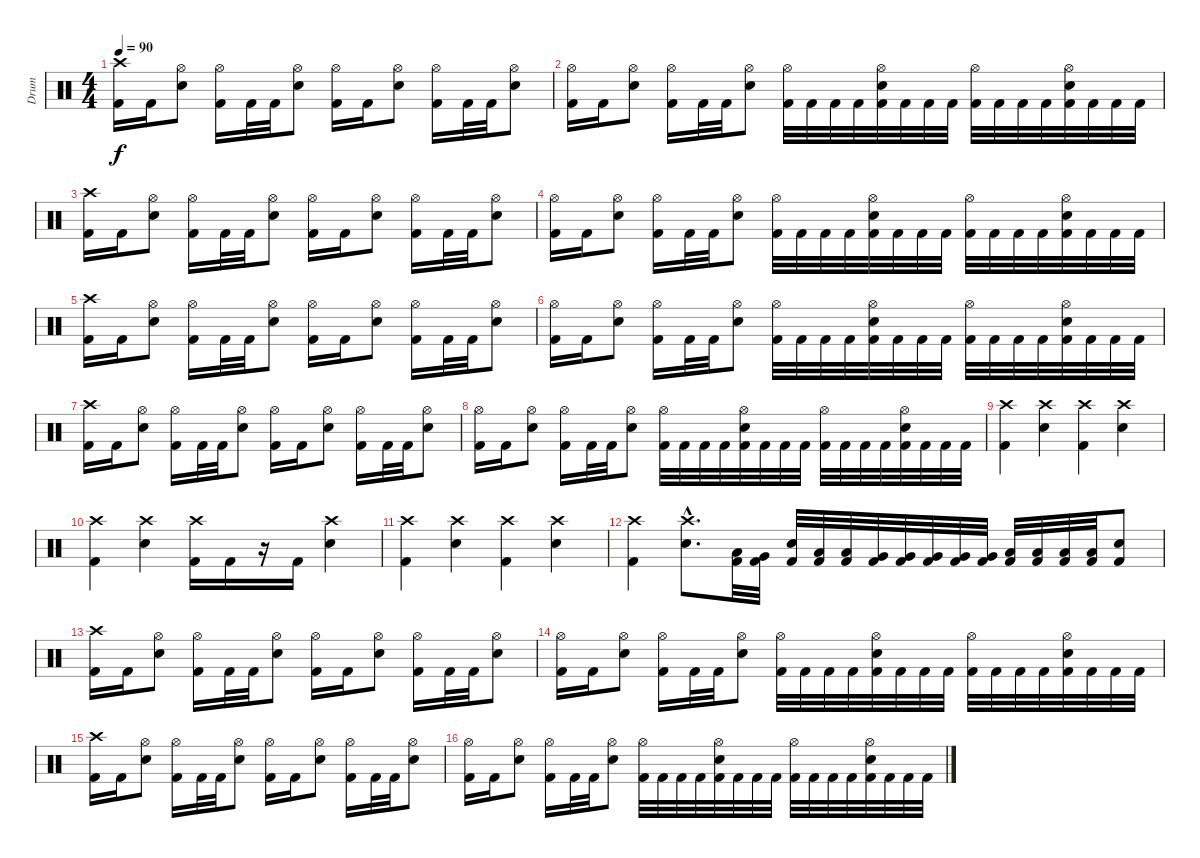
\track ("Drum" "Drum") {instrument percussion}
\staff {score}
\articulation defaults
\ts (4 4)
\tempo 90
\clef neutral
\ks c
("Crash high (hit)" "Kick (hit) 2").16{dy f} "Kick (hit) 2".16 ("Electric Snare (hit)" "Hi-Hat (open)").8 ("Hi-Hat (open)" "Kick (hit) 2").16 "Kick (hit) 2".32 "Kick (hit) 2".32 ("Electric Snare (hit)" "Hi-Hat (open)").8 ("Hi-Hat (open)" "Kick (hit) 2").16 "Kick (hit) 2".16 ("Electric Snare (hit)" "Hi-Hat (open)").8 ("Hi-Hat (open)" "Kick (hit) 2").16 "Kick (hit) 2".32 "Kick (hit) 2".32 ("Electric Snare (hit)" "Hi-Hat (open)").8 |
("Hi-Hat (open)" "Kick (hit) 2").16 "Kick (hit) 2".16 ("Electric Snare (hit)" "Hi-Hat (open)").8 ("Hi-Hat (open)" "Kick (hit) 2").16 "Kick (hit) 2".32 "Kick (hit) 2".32 ("Electric Snare (hit)" "Hi-Hat (open)").8 ("Hi-Hat (open)" "Kick (hit) 2").32 "Kick (hit) 2".32 "Kick (hit) 2".32 "Kick (hit) 2".32 ("Electric Snare (hit)" "Hi-Hat (open)" "Kick (hit) 2").32 "Kick (hit) 2".32 "Kick (hit) 2".32 "Kick (hit) 2".32 ("Hi-Hat (open)" "Kick (hit) 2").32 "Kick (hit) 2".32 "Kick (hit) 2".32 "Kick (hit) 2".32 ("Electric Snare (hit)" "Hi-Hat (open)" "Kick (hit) 2").32 "Kick (hit) 2".32 "Kick (hit) 2".32 "Kick (hit) 2".32 |
("Crash high (hit)" "Kick (hit) 2").16 "Kick (hit) 2".16 ("Electric Snare (hit)" "Hi-Hat (open)").8 ("Hi-Hat (open)" "Kick (hit) 2").16 "Kick (hit) 2".32 "Kick (hit) 2".32 ("Electric Snare (hit)" "Hi-Hat (open)").8 ("Hi-Hat (open)" "Kick (hit) 2").16 "Kick (hit) 2".16 ("Electric Snare (hit)" "Hi-Hat (open)").8 ("Hi-Hat (open)" "Kick (hit) 2").16 "Kick (hit) 2".32 "Kick (hit) 2".32 ("Electric Snare (hit)" "Hi-Hat (open)").8 |
("Hi-Hat (open)" "Kick (hit) 2").16 "Kick (hit) 2".16 ("Electric Snare (hit)" "Hi-Hat (open)").8 ("Hi-Hat (open)" "Kick (hit) 2").16 "Kick (hit) 2".32 "Kick (hit) 2".32 ("Electric Snare (hit)" "Hi-Hat (open)").8 ("Hi-Hat (open)" "Kick (hit) 2").32 "Kick (hit) 2".32 "Kick (hit) 2".32 "Kick (hit) 2".32 ("Electric Snare (hit)" "Hi-Hat (open)" "Kick (hit) 2").32 "Kick (hit) 2".32 "Kick (hit) 2".32 "Kick (hit) 2".32 ("Hi-Hat (open)" "Kick (hit) 2").32 "Kick (hit) 2".32 "Kick (hit) 2".32 "Kick (hit) 2".32 ("Electric Snare (hit)" "Hi-Hat (open)" "Kick (hit) 2").32 "Kick (hit) 2".32 "Kick (hit) 2".32 "Kick (hit) 2".32 |
("Crash high (hit)" "Kick (hit) 2").16 "Kick (hit) 2".16 ("Electric Snare (hit)" "Hi-Hat (open)").8 ("Hi-Hat (open)" "Kick (hit) 2").16 "Kick (hit) 2".32 "Kick (hit) 2".32 ("Electric Snare (hit)" "Hi-Hat (open)").8 ("Hi-Hat (open)" "Kick (hit) 2").16 "Kick (hit) 2".16 ("Electric Snare (hit)" "Hi-Hat (open)").8 ("Hi-Hat (open)" "Kick (hit) 2").16 "Kick (hit) 2".32 "Kick (hit) 2".32 ("Electric Snare (hit)" "Hi-Hat (open)").8 |
("Hi-Hat (open)" "Kick (hit) 2").16 "Kick (hit) 2".16 ("Electric Snare (hit)" "Hi-Hat (open)").8 ("Hi-Hat (open)" "Kick (hit) 2").16 "Kick (hit) 2".32 "Kick (hit) 2".32 ("Electric Snare (hit)" "Hi-Hat (open)").8 ("Hi-Hat (open)" "Kick (hit) 2").32 "Kick (hit) 2".32 "Kick (hit) 2".32 "Kick (hit) 2".32 ("Electric Snare (hit)" "Hi-Hat (open)" "Kick (hit) 2").32 "Kick (hit) 2".32 "Kick (hit) 2".32 "Kick (hit) 2".32 ("Hi-Hat (open)" "Kick (hit) 2").32 "Kick (hit) 2".32 "Kick (hit) 2".32 "Kick (hit) 2".32 ("Electric Snare (hit)" "Hi-Hat (open)" "Kick (hit) 2").32 "Kick (hit) 2".32 "Kick (hit) 2".32 "Kick (hit) 2".32 |
("Crash high (hit)" "Kick (hit) 2").16 "Kick (hit) 2".16 ("Electric Snare (hit)" "Hi-Hat (open)").8 ("Hi-Hat (open)" "Kick (hit) 2").16 "Kick (hit) 2".32 "Kick (hit) 2".32 ("Electric Snare (hit)" "Hi-Hat (open)").8 ("Hi-Hat (open)" "Kick (hit) 2").16 "Kick (hit) 2".16 ("Electric Snare (hit)" "Hi-Hat (open)").8 ("Hi-Hat (open)" "Kick (hit) 2").16 "Kick (hit) 2".32 "Kick (hit) 2".32 ("Electric Snare (hit)" "Hi-Hat (open)").8 |
("Hi-Hat (open)" "Kick (hit) 2").16 "Kick (hit) 2".16 ("Electric Snare (hit)" "Hi-Hat (open)").8 ("Hi-Hat (open)" "Kick (hit) 2").16 "Kick (hit) 2".32 "Kick (hit) 2".32 ("Electric Snare (hit)" "Hi-Hat (open)").8 ("Hi-Hat (open)" "Kick (hit) 2").32 "Kick (hit) 2".32 "Kick (hit) 2".32 "Kick (hit) 2".32 ("Electric Snare (hit)" "Hi-Hat (open)" "Kick (hit) 2").32 "Kick (hit) 2".32 "Kick (hit) 2".32 "Kick (hit) 2".32 ("Hi-Hat (open)" "Kick (hit) 2").32 "Kick (hit) 2".32 "Kick (hit) 2".32 "Kick (hit) 2".32 ("Electric Snare (hit)" "Hi-Hat (open)" "Kick (hit) 2").32 "Kick (hit) 2".32 "Kick (hit) 2".32 "Kick (hit) 2".32 |
("Crash high (hit)" "Kick (hit) 2").4 ("Electric Snare (hit)" "Crash high (hit)").4 ("Crash high (hit)" "Kick (hit) 2").4 ("Electric Snare (hit)" "Crash high (hit)").4 |
("Crash high (hit)" "Kick (hit) 2").4 ("Electric Snare (hit)" "Crash high (hit)").4 ("Crash high (hit)" "Kick (hit) 2").16 "Kick (hit) 2".16 r.16 "Kick (hit) 2".16 ("Electric Snare (hit)" "Crash high (hit)").4 |
("Crash high (hit)" "Kick (hit) 2").4 ("Electric Snare (hit)" "Crash high (hit)").4 ("Crash high (hit)" "Kick (hit) 2").4 ("Electric Snare (hit)" "Crash high (hit)").4 |
("Crash high (hit)" "Kick (hit) 2").4 ("Electric Snare (hit)"{hac} "Crash high (hit)"{hac}).8{d} ("Low Tom (hit)" "Kick (hit) 2").32 ("Very Low Tom (hit)" "Kick (hit) 2").32 ("Electric Snare (hit)" "Kick (hit) 2").32 ("Low Tom (hit)" "Kick (hit) 2").32 ("Low Tom (hit)" "Kick (hit) 2").32 ("Very Low Tom (hit)" "Kick (hit) 2").32 ("Very Low Tom (hit)" "Kick (hit) 2").32 ("Very Low Tom (hit)" "Kick (hit) 2").32 ("Very Low Tom (hit)" "Kick (hit) 2").32 ("Very Low Tom (hit)" "Kick (hit) 2").32 ("Low Floor Tom (hit)" "Kick (hit) 2").32 ("Low Floor Tom (hit)" "Kick (hit) 2").32 ("Low Floor Tom (hit)" "Kick (hit) 2").32 ("Low Floor Tom (hit)" "Kick (hit) 2").32 ("Electric Snare (hit)" "Kick (hit) 2").8 |
("Crash high (hit)" "Kick (hit) 2").16 "Kick (hit) 2".16 ("Electric Snare (hit)" "Hi-Hat (open)").8 ("Hi-Hat (open)" "Kick (hit) 2").16 "Kick (hit) 2".32 "Kick (hit) 2".32 ("Electric Snare (hit)" "Hi-Hat (open)").8 ("Hi-Hat (open)" "Kick (hit) 2").16 "Kick (hit) 2".16 ("Electric Snare (hit)" "Hi-Hat (open)").8 ("Hi-Hat (open)" "Kick (hit) 2").16 "Kick (hit) 2".32 "Kick (hit) 2".32 ("Electric Snare (hit)" "Hi-Hat (open)").8 |
("Hi-Hat (open)" "Kick (hit) 2").16 "Kick (hit) 2".16 ("Electric Snare (hit)" "Hi-Hat (open)").8 ("Hi-Hat (open)" "Kick (hit) 2").16 "Kick (hit) 2".32 "Kick (hit) 2".32 ("Electric Snare (hit)" "Hi-Hat (open)").8 ("Hi-Hat (open)" "Kick (hit) 2").32 "Kick (hit) 2".32 "Kick (hit) 2".32 "Kick (hit) 2".32 ("Electric Snare (hit)" "Hi-Hat (open)" "Kick (hit) 2").32 "Kick (hit) 2".32 "Kick (hit) 2".32 "Kick (hit) 2".32 ("Hi-Hat (open)" "Kick (hit) 2").32 "Kick (hit) 2".32 "Kick (hit) 2".32 "Kick (hit) 2".32 ("Electric Snare (hit)" "Hi-Hat (open)" "Kick (hit) 2").32 "Kick (hit) 2".32 "Kick (hit) 2".32 "Kick (hit) 2".32 |
("Crash high (hit)" "Kick (hit) 2").16 "Kick (hit) 2".16 ("Electric Snare (hit)" "Hi-Hat (open)").8 ("Hi-Hat (open)" "Kick (hit) 2").16 "Kick (hit) 2".32 "Kick (hit) 2".32 ("Electric Snare (hit)" "Hi-Hat (open)").8 ("Hi-Hat (open)" "Kick (hit) 2").16 "Kick (hit) 2".16 ("Electric Snare (hit)" "Hi-Hat (open)").8 ("Hi-Hat (open)" "Kick (hit) 2").16 "Kick (hit) 2".32 "Kick (hit) 2".32 ("Electric Snare (hit)" "Hi-Hat (open)").8 |
("Hi-Hat (open)" "Kick (hit) 2").16 "Kick (hit) 2".16 ("Electric Snare (hit)" "Hi-Hat (open)").8 ("Hi-Hat (open)" "Kick (hit) 2").16 "Kick (hit) 2".32 "Kick (hit) 2".32 ("Electric Snare (hit)" "Hi-Hat (open)").8 ("Hi-Hat (open)" "Kick (hit) 2").32 "Kick (hit) 2".32 "Kick (hit) 2".32 "Kick (hit) 2".32 ("Electric Snare (hit)" "Hi-Hat (open)" "Kick (hit) 2").32 "Kick (hit) 2".32 "Kick (hit) 2".32 "Kick (hit) 2".32 ("Hi-Hat (open)" "Kick (hit) 2").32 "Kick (hit) 2".32 "Kick (hit) 2".32 "Kick (hit) 2".32 ("Electric Snare (hit)" "Hi-Hat (open)" "Kick (hit) 2").32 "Kick (hit) 2".32 "Kick (hit) 2".32 "Kick (hit) 2".32
